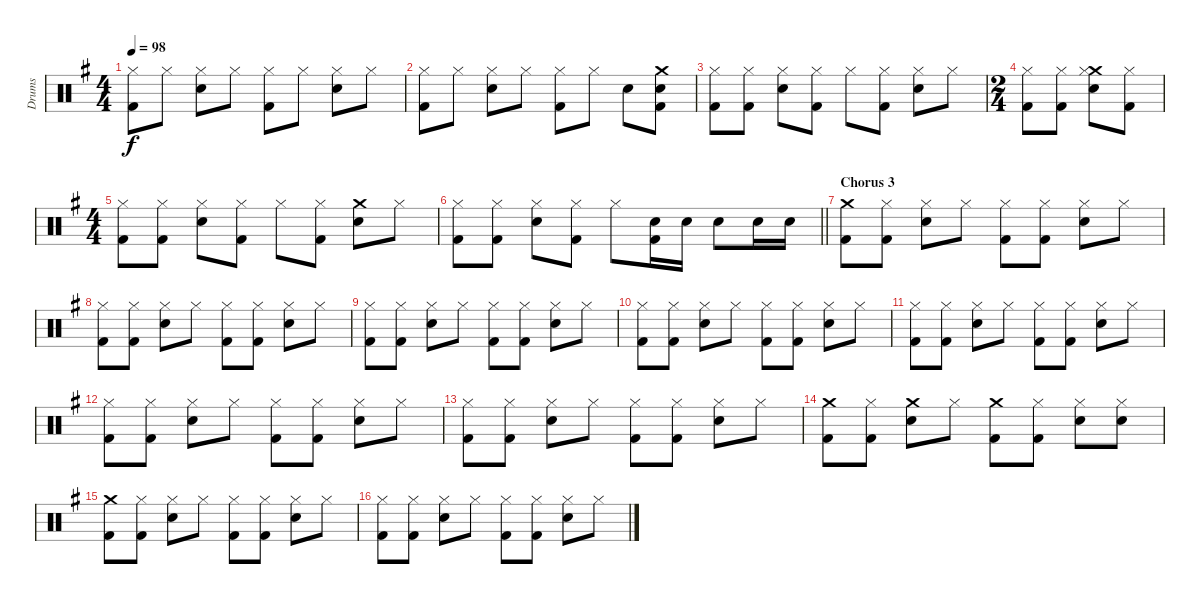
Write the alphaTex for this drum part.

\track ("Drums" "Drums") {instrument percussion}
\staff {score}
\articulation defaults
\ts (4 4)
\tempo 98
\clef neutral
\ks g
("Hi-Hat (closed)" "Kick (hit) 2").8{dy f} "Hi-Hat (closed)".8 ("Hi-Hat (closed)" "Electric Snare (hit)").8 "Hi-Hat (closed)".8 ("Hi-Hat (closed)" "Kick (hit) 2").8 "Hi-Hat (closed)".8 ("Hi-Hat (closed)" "Electric Snare (hit)").8 "Hi-Hat (closed)".8 |
("Hi-Hat (closed)" "Kick (hit) 2").8 "Hi-Hat (closed)".8 ("Hi-Hat (closed)" "Electric Snare (hit)").8 "Hi-Hat (closed)".8 ("Hi-Hat (closed)" "Kick (hit) 2").8 "Hi-Hat (closed)".8 "Electric Snare (hit)".8 ("Crash medium (hit)" "Electric Snare (hit)" "Kick (hit) 2").8 |
("Hi-Hat (closed)" "Kick (hit) 2").8 ("Hi-Hat (closed)" "Kick (hit) 2").8 ("Hi-Hat (closed)" "Electric Snare (hit)").8 ("Hi-Hat (closed)" "Kick (hit) 2").8 "Hi-Hat (closed)".8 ("Hi-Hat (closed)" "Kick (hit) 2").8 ("Hi-Hat (closed)" "Electric Snare (hit)").8 "Hi-Hat (closed)".8 |
\ts (2 4)
("Hi-Hat (closed)" "Kick (hit) 2").8 ("Hi-Hat (closed)" "Kick (hit) 2").8 ("Crash medium (hit)" "Hi-Hat (closed)" "Electric Snare (hit)").8 ("Hi-Hat (closed)" "Kick (hit) 2").8 |
\ts (4 4)
("Hi-Hat (closed)" "Kick (hit) 2").8 ("Hi-Hat (closed)" "Kick (hit) 2").8 ("Hi-Hat (closed)" "Electric Snare (hit)").8 ("Hi-Hat (closed)" "Kick (hit) 2").8 "Hi-Hat (closed)".8 ("Hi-Hat (closed)" "Kick (hit) 2").8 ("Crash medium (hit)" "Electric Snare (hit)").8 "Hi-Hat (closed)".8 |
\barLineRight lightlight
("Hi-Hat (closed)" "Kick (hit) 2").8 ("Hi-Hat (closed)" "Kick (hit) 2").8 ("Hi-Hat (closed)" "Electric Snare (hit)").8 ("Hi-Hat (closed)" "Kick (hit) 2").8 "Hi-Hat (closed)".8 ("Electric Snare (hit)" "Kick (hit) 2").16 "Electric Snare (hit)".16 "Electric Snare (hit)".8 "Electric Snare (hit)".16 "Electric Snare (hit)".16 |
\section ("" "Chorus 3")
("Crash medium (hit)" "Kick (hit) 2").8 ("Hi-Hat (closed)" "Kick (hit) 2").8 ("Hi-Hat (closed)" "Electric Snare (hit)").8 "Hi-Hat (closed)".8 ("Hi-Hat (closed)" "Kick (hit) 2").8 ("Hi-Hat (closed)" "Kick (hit) 2").8 ("Hi-Hat (closed)" "Electric Snare (hit)").8 "Hi-Hat (closed)".8 |
("Hi-Hat (closed)" "Kick (hit) 2").8 ("Hi-Hat (closed)" "Kick (hit) 2").8 ("Hi-Hat (closed)" "Electric Snare (hit)").8 "Hi-Hat (closed)".8 ("Hi-Hat (closed)" "Kick (hit) 2").8 ("Hi-Hat (closed)" "Kick (hit) 2").8 ("Hi-Hat (closed)" "Electric Snare (hit)").8 "Hi-Hat (closed)".8 |
("Hi-Hat (closed)" "Kick (hit) 2").8 ("Hi-Hat (closed)" "Kick (hit) 2").8 ("Hi-Hat (closed)" "Electric Snare (hit)").8 "Hi-Hat (closed)".8 ("Hi-Hat (closed)" "Kick (hit) 2").8 ("Hi-Hat (closed)" "Kick (hit) 2").8 ("Hi-Hat (closed)" "Electric Snare (hit)").8 "Hi-Hat (closed)".8 |
("Hi-Hat (closed)" "Kick (hit) 2").8 ("Hi-Hat (closed)" "Kick (hit) 2").8 ("Hi-Hat (closed)" "Electric Snare (hit)").8 "Hi-Hat (closed)".8 ("Hi-Hat (closed)" "Kick (hit) 2").8 ("Hi-Hat (closed)" "Kick (hit) 2").8 ("Hi-Hat (closed)" "Electric Snare (hit)").8 "Hi-Hat (closed)".8 |
("Hi-Hat (closed)" "Kick (hit) 2").8 ("Hi-Hat (closed)" "Kick (hit) 2").8 ("Hi-Hat (closed)" "Electric Snare (hit)").8 "Hi-Hat (closed)".8 ("Hi-Hat (closed)" "Kick (hit) 2").8 ("Hi-Hat (closed)" "Kick (hit) 2").8 ("Hi-Hat (closed)" "Electric Snare (hit)").8 "Hi-Hat (closed)".8 |
("Hi-Hat (closed)" "Kick (hit) 2").8 ("Hi-Hat (closed)" "Kick (hit) 2").8 ("Hi-Hat (closed)" "Electric Snare (hit)").8 "Hi-Hat (closed)".8 ("Hi-Hat (closed)" "Kick (hit) 2").8 ("Hi-Hat (closed)" "Kick (hit) 2").8 ("Hi-Hat (closed)" "Electric Snare (hit)").8 "Hi-Hat (closed)".8 |
("Hi-Hat (closed)" "Kick (hit) 2").8 ("Hi-Hat (closed)" "Kick (hit) 2").8 ("Hi-Hat (closed)" "Electric Snare (hit)").8 "Hi-Hat (closed)".8 ("Hi-Hat (closed)" "Kick (hit) 2").8 ("Hi-Hat (closed)" "Kick (hit) 2").8 ("Hi-Hat (closed)" "Electric Snare (hit)").8 "Hi-Hat (closed)".8 |
("Crash medium (hit)" "Kick (hit) 2").8 ("Hi-Hat (closed)" "Kick (hit) 2").8 ("Crash medium (hit)" "Electric Snare (hit)").8 "Hi-Hat (closed)".8 ("Crash medium (hit)" "Kick (hit) 2").8 ("Hi-Hat (closed)" "Kick (hit) 2").8 ("Hi-Hat (closed)" "Electric Snare (hit)").8 ("Hi-Hat (closed)" "Electric Snare (hit)").8 |
("Crash medium (hit)" "Kick (hit) 2").8 ("Hi-Hat (closed)" "Kick (hit) 2").8 ("Hi-Hat (closed)" "Electric Snare (hit)").8 "Hi-Hat (closed)".8 ("Hi-Hat (closed)" "Kick (hit) 2").8 ("Hi-Hat (closed)" "Kick (hit) 2").8 ("Hi-Hat (closed)" "Electric Snare (hit)").8 "Hi-Hat (closed)".8 |
("Hi-Hat (closed)" "Kick (hit) 2").8 ("Hi-Hat (closed)" "Kick (hit) 2").8 ("Hi-Hat (closed)" "Electric Snare (hit)").8 "Hi-Hat (closed)".8 ("Hi-Hat (closed)" "Kick (hit) 2").8 ("Hi-Hat (closed)" "Kick (hit) 2").8 ("Hi-Hat (closed)" "Electric Snare (hit)").8 "Hi-Hat (closed)".8
